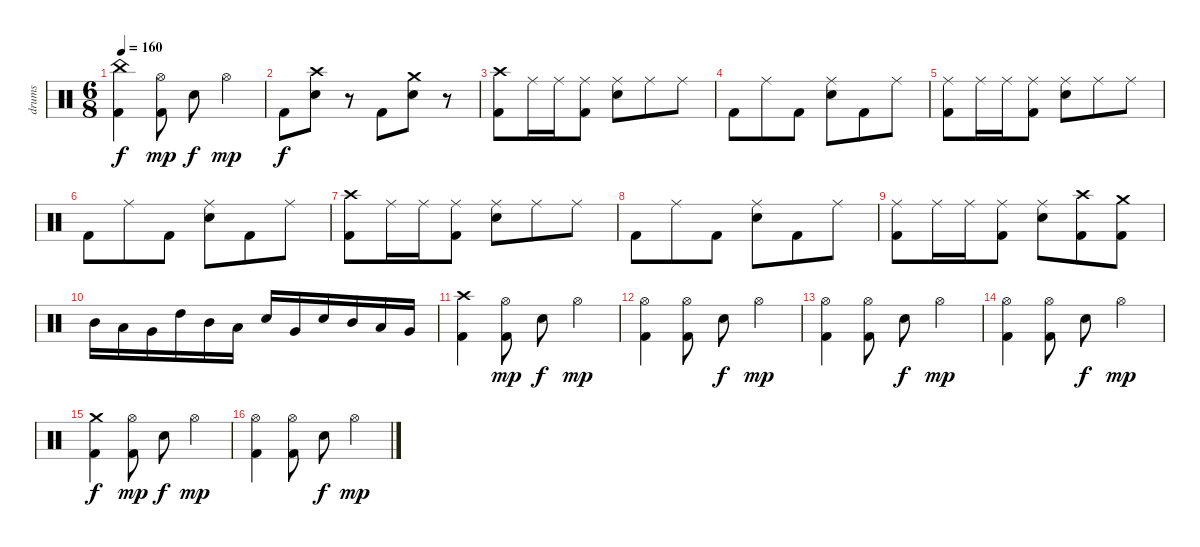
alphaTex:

\track ("drums" "drums") {instrument percussion}
\staff {score}
\articulation defaults
\ts (6 8)
\tempo 160
\clef neutral
\ks c
("Kick (hit) 2" "China (hit)").4{dy f} ("Kick (hit) 2" "Hi-Hat (open)").8{dy mp} "Electric Snare (hit)".8{dy f} "Hi-Hat (open)".4{dy mp} |
"Kick (hit) 2".8{dy f} ("Crash high (hit)" "Electric Snare (hit)").8 r.8 "Kick (hit) 2".8 ("Crash medium (hit)" "Electric Snare (hit)").8 r.8 |
("Kick (hit) 2" "Crash high (hit)").8 "Ride (middle)".16 "Ride (middle)".16 ("Kick (hit) 2" "Ride (middle)").8 ("Electric Snare (hit)" "Ride (middle)").8 "Ride (middle)".8 "Ride (middle)".8 |
"Kick (hit) 2".8 "Ride (middle)".8 "Kick (hit) 2".8 ("Electric Snare (hit)" "Ride (middle)").8 "Kick (hit) 2".8 "Ride (middle)".8 |
("Ride (middle)" "Kick (hit) 2").8 "Ride (middle)".16 "Ride (middle)".16 ("Kick (hit) 2" "Ride (middle)").8 ("Electric Snare (hit)" "Ride (middle)").8 "Ride (middle)".8 "Ride (middle)".8 |
"Kick (hit) 2".8 "Ride (middle)".8 "Kick (hit) 2".8 ("Electric Snare (hit)" "Ride (middle)").8 "Kick (hit) 2".8 "Ride (middle)".8 |
("Kick (hit) 2" "Crash high (hit)").8 "Ride (middle)".16 "Ride (middle)".16 ("Kick (hit) 2" "Ride (middle)").8 ("Electric Snare (hit)" "Ride (middle)").8 "Ride (middle)".8 "Ride (middle)".8 |
"Kick (hit) 2".8 "Ride (middle)".8 "Kick (hit) 2".8 ("Electric Snare (hit)" "Ride (middle)").8 "Kick (hit) 2".8 "Ride (middle)".8 |
("Ride (middle)" "Kick (hit) 2").8 "Ride (middle)".16 "Ride (middle)".16 ("Kick (hit) 2" "Ride (middle)").8 ("Electric Snare (hit)" "Ride (middle)").8 ("Kick (hit) 2" "Crash high (hit)").8 ("Kick (hit) 2" "Crash medium (hit)").8 |
"Mid Tom (hit)".16 "Low Tom (hit)".16 "Very Low Tom (hit)".16 "High Tom (hit)".16 "Mid Tom (hit)".16 "Low Tom (hit)".16 "Electric Snare (hit)".16 "Very Low Tom (hit)".16 "Electric Snare (hit)".16 "Mid Tom (hit)".16 "Low Tom (hit)".16 "Very Low Tom (hit)".16 |
("Kick (hit) 2" "Crash high (hit)").4 ("Kick (hit) 2" "Hi-Hat (open)").8{dy mp} "Electric Snare (hit)".8{dy f} "Hi-Hat (open)".4{dy mp} |
("Kick (hit) 2" "Hi-Hat (open)").4 ("Kick (hit) 2" "Hi-Hat (open)").8 "Electric Snare (hit)".8{dy f} "Hi-Hat (open)".4{dy mp} |
("Hi-Hat (open)" "Kick (hit) 2").4 ("Kick (hit) 2" "Hi-Hat (open)").8 "Electric Snare (hit)".8{dy f} "Hi-Hat (open)".4{dy mp} |
("Kick (hit) 2" "Hi-Hat (open)").4 ("Kick (hit) 2" "Hi-Hat (open)").8 "Electric Snare (hit)".8{dy f} "Hi-Hat (open)".4{dy mp} |
("Kick (hit) 2" "Crash medium (hit)").4{dy f} ("Kick (hit) 2" "Hi-Hat (open)").8{dy mp} "Electric Snare (hit)".8{dy f} "Hi-Hat (open)".4{dy mp} |
("Kick (hit) 2" "Hi-Hat (open)").4 ("Kick (hit) 2" "Hi-Hat (open)").8 "Electric Snare (hit)".8{dy f} "Hi-Hat (open)".4{dy mp}
